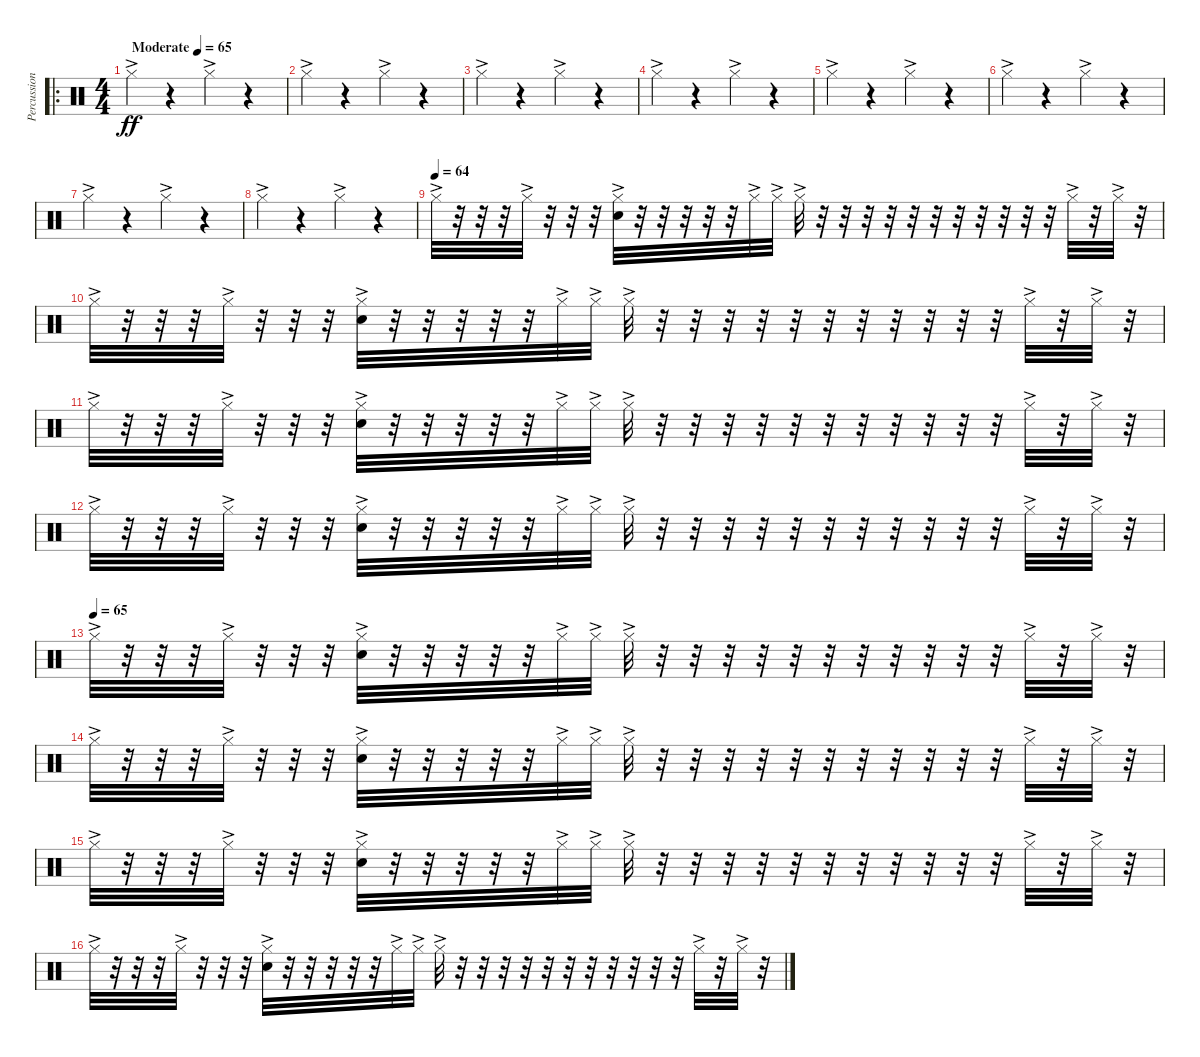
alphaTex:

\track ("Percussion" "Percussion") {instrument percussion}
\staff {score}
\articulation defaults
\ro
\ts (4 4)
\tempo (65 "Moderate")
\clef neutral
\ks c "Hi-Hat (closed)"{ac}.4{dy ff}
r.4 "Hi-Hat (closed)"{ac}.4 r.4 |
"Hi-Hat (closed)"{ac}.4 r.4 "Hi-Hat (closed)"{ac}.4 r.4 |
"Hi-Hat (closed)"{ac}.4 r.4 "Hi-Hat (closed)"{ac}.4 r.4 |
"Hi-Hat (closed)"{ac}.4 r.4 "Hi-Hat (closed)"{ac}.4 r.4 |
"Hi-Hat (closed)"{ac}.4 r.4 "Hi-Hat (closed)"{ac}.4 r.4 |
"Hi-Hat (closed)"{ac}.4 r.4 "Hi-Hat (closed)"{ac}.4 r.4 |
"Hi-Hat (closed)"{ac}.4 r.4 "Hi-Hat (closed)"{ac}.4 r.4 |
"Hi-Hat (closed)"{ac}.4 r.4 "Hi-Hat (closed)"{ac}.4 r.4 |
\tempo (64)
"Hi-Hat (closed)"{ac}.32 r.32 r.32 r.32 "Hi-Hat (closed)"{ac}.32 r.32 r.32 r.32 ("Hi-Hat (closed)"{ac} "Snare (hit) 2"{ac}).32 r.32 r.32 r.32 r.32 r.32 "Hi-Hat (closed)"{ac}.32 "Hi-Hat (closed)"{ac}.32 "Hi-Hat (closed)"{ac}.32 r.32 r.32 r.32 r.32 r.32 r.32 r.32 r.32 r.32 r.32 r.32 "Hi-Hat (closed)"{ac}.32 r.32 "Hi-Hat (closed)"{ac}.32 r.32 |
"Hi-Hat (closed)"{ac}.32 r.32 r.32 r.32 "Hi-Hat (closed)"{ac}.32 r.32 r.32 r.32 ("Hi-Hat (closed)"{ac} "Snare (hit) 2"{ac}).32 r.32 r.32 r.32 r.32 r.32 "Hi-Hat (closed)"{ac}.32 "Hi-Hat (closed)"{ac}.32 "Hi-Hat (closed)"{ac}.32 r.32 r.32 r.32 r.32 r.32 r.32 r.32 r.32 r.32 r.32 r.32 "Hi-Hat (closed)"{ac}.32 r.32 "Hi-Hat (closed)"{ac}.32 r.32 |
"Hi-Hat (closed)"{ac}.32 r.32 r.32 r.32 "Hi-Hat (closed)"{ac}.32 r.32 r.32 r.32 ("Hi-Hat (closed)"{ac} "Snare (hit) 2"{ac}).32 r.32 r.32 r.32 r.32 r.32 "Hi-Hat (closed)"{ac}.32 "Hi-Hat (closed)"{ac}.32 "Hi-Hat (closed)"{ac}.32 r.32 r.32 r.32 r.32 r.32 r.32 r.32 r.32 r.32 r.32 r.32 "Hi-Hat (closed)"{ac}.32 r.32 "Hi-Hat (closed)"{ac}.32 r.32 |
"Hi-Hat (closed)"{ac}.32 r.32 r.32 r.32 "Hi-Hat (closed)"{ac}.32 r.32 r.32 r.32 ("Hi-Hat (closed)"{ac} "Snare (hit) 2"{ac}).32 r.32 r.32 r.32 r.32 r.32 "Hi-Hat (closed)"{ac}.32 "Hi-Hat (closed)"{ac}.32 "Hi-Hat (closed)"{ac}.32 r.32 r.32 r.32 r.32 r.32 r.32 r.32 r.32 r.32 r.32 r.32 "Hi-Hat (closed)"{ac}.32 r.32 "Hi-Hat (closed)"{ac}.32 r.32 |
\tempo (65)
"Hi-Hat (closed)"{ac}.32 r.32 r.32 r.32 "Hi-Hat (closed)"{ac}.32 r.32 r.32 r.32 ("Hi-Hat (closed)"{ac} "Snare (hit) 2"{ac}).32 r.32 r.32 r.32 r.32 r.32 "Hi-Hat (closed)"{ac}.32 "Hi-Hat (closed)"{ac}.32 "Hi-Hat (closed)"{ac}.32 r.32 r.32 r.32 r.32 r.32 r.32 r.32 r.32 r.32 r.32 r.32 "Hi-Hat (closed)"{ac}.32 r.32 "Hi-Hat (closed)"{ac}.32 r.32 |
"Hi-Hat (closed)"{ac}.32 r.32 r.32 r.32 "Hi-Hat (closed)"{ac}.32 r.32 r.32 r.32 ("Hi-Hat (closed)"{ac} "Snare (hit) 2"{ac}).32 r.32 r.32 r.32 r.32 r.32 "Hi-Hat (closed)"{ac}.32 "Hi-Hat (closed)"{ac}.32 "Hi-Hat (closed)"{ac}.32 r.32 r.32 r.32 r.32 r.32 r.32 r.32 r.32 r.32 r.32 r.32 "Hi-Hat (closed)"{ac}.32 r.32 "Hi-Hat (closed)"{ac}.32 r.32 |
"Hi-Hat (closed)"{ac}.32 r.32 r.32 r.32 "Hi-Hat (closed)"{ac}.32 r.32 r.32 r.32 ("Hi-Hat (closed)"{ac} "Snare (hit) 2"{ac}).32 r.32 r.32 r.32 r.32 r.32 "Hi-Hat (closed)"{ac}.32 "Hi-Hat (closed)"{ac}.32 "Hi-Hat (closed)"{ac}.32 r.32 r.32 r.32 r.32 r.32 r.32 r.32 r.32 r.32 r.32 r.32 "Hi-Hat (closed)"{ac}.32 r.32 "Hi-Hat (closed)"{ac}.32 r.32 |
"Hi-Hat (closed)"{ac}.32 r.32 r.32 r.32 "Hi-Hat (closed)"{ac}.32 r.32 r.32 r.32 ("Hi-Hat (closed)"{ac} "Snare (hit) 2"{ac}).32 r.32 r.32 r.32 r.32 r.32 "Hi-Hat (closed)"{ac}.32 "Hi-Hat (closed)"{ac}.32 "Hi-Hat (closed)"{ac}.32 r.32 r.32 r.32 r.32 r.32 r.32 r.32 r.32 r.32 r.32 r.32 "Hi-Hat (closed)"{ac}.32 r.32 "Hi-Hat (closed)"{ac}.32 r.32
